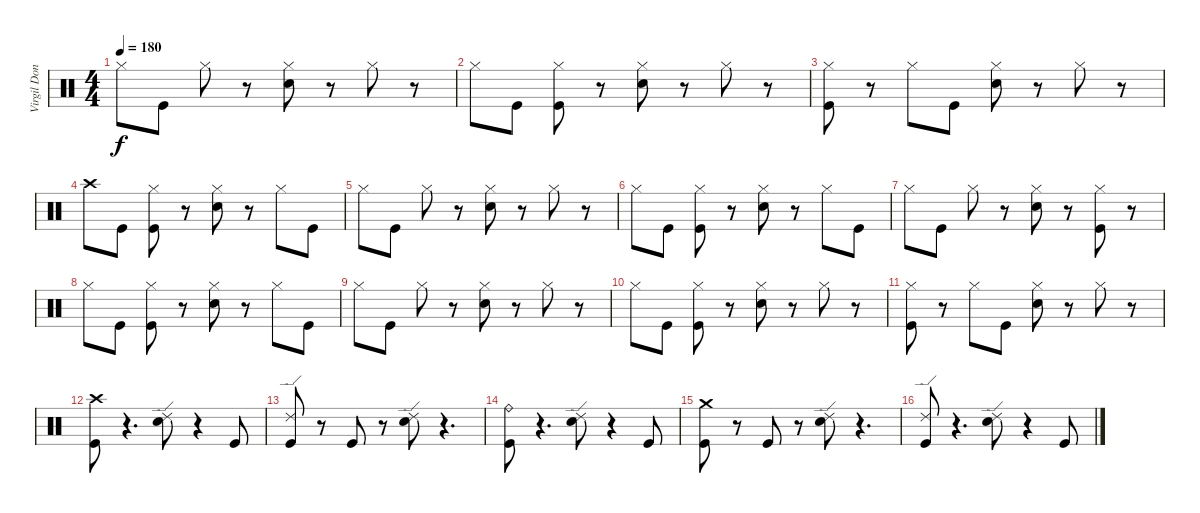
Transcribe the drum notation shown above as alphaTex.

\track ("Virgil Donati" "Virgil Don") {instrument percussion}
\staff {score}
\articulation defaults
\ts (4 4)
\tempo 180
\clef neutral
\ks c "Hi-Hat (closed)".8{dy f} "Kick (hit)".8 "Hi-Hat (closed)".8
r.8 ("Hi-Hat (closed)" "Electric Snare (hit)").8 r.8 "Hi-Hat (closed)".8 r.8 |
"Hi-Hat (closed)".8 "Kick (hit)".8 ("Hi-Hat (closed)" "Kick (hit)").8 r.8 ("Hi-Hat (closed)" "Electric Snare (hit)").8 r.8 "Hi-Hat (closed)".8 r.8 |
("Hi-Hat (closed)" "Kick (hit)").8 r.8 "Hi-Hat (closed)".8 "Kick (hit)".8 ("Hi-Hat (closed)" "Electric Snare (hit)").8 r.8 "Hi-Hat (closed)".8 r.8 |
"Crash high (hit)".8 "Kick (hit)".8 ("Hi-Hat (closed)" "Kick (hit)").8 r.8 ("Hi-Hat (closed)" "Electric Snare (hit)").8 r.8 "Hi-Hat (closed)".8 "Kick (hit)".8 |
"Hi-Hat (closed)".8 "Kick (hit)".8 "Hi-Hat (closed)".8 r.8 ("Hi-Hat (closed)" "Electric Snare (hit)").8 r.8 "Hi-Hat (closed)".8 r.8 |
"Hi-Hat (closed)".8 "Kick (hit)".8 ("Hi-Hat (closed)" "Kick (hit)").8 r.8 ("Hi-Hat (closed)" "Electric Snare (hit)").8 r.8 "Hi-Hat (closed)".8 "Kick (hit)".8 |
"Hi-Hat (closed)".8 "Kick (hit)".8 "Hi-Hat (closed)".8 r.8 ("Hi-Hat (closed)" "Electric Snare (hit)").8 r.8 ("Hi-Hat (closed)" "Kick (hit)").8 r.8 |
"Hi-Hat (closed)".8 "Kick (hit)".8 ("Hi-Hat (closed)" "Kick (hit)").8 r.8 ("Hi-Hat (closed)" "Electric Snare (hit)").8 r.8 "Hi-Hat (closed)".8 "Kick (hit)".8 |
"Hi-Hat (closed)".8 "Kick (hit)".8 "Hi-Hat (closed)".8 r.8 ("Hi-Hat (closed)" "Electric Snare (hit)").8 r.8 "Hi-Hat (closed)".8 r.8 |
"Hi-Hat (closed)".8 "Kick (hit)".8 ("Hi-Hat (closed)" "Kick (hit)").8 r.8 ("Hi-Hat (closed)" "Electric Snare (hit)").8 r.8 "Hi-Hat (closed)".8 r.8 |
("Hi-Hat (closed)" "Kick (hit)").8 r.8 "Hi-Hat (closed)".8 "Kick (hit)".8 ("Hi-Hat (closed)" "Electric Snare (hit)").8 r.8 "Hi-Hat (closed)".8 r.8 |
("Crash high (hit)" "Kick (hit)").8 r.4{d} ("Ride (edge) 2" "Electric Snare (hit)").8 r.4 "Kick (hit)".8 |
("Ride (edge) 2" "Kick (hit)").8 r.8 "Kick (hit)".8 r.8 ("Ride (edge) 2" "Electric Snare (hit)").8 r.4{d} |
("Ride (bell)" "Kick (hit)").8 r.4{d} ("Ride (edge) 2" "Electric Snare (hit)").8 r.4 "Kick (hit)".8 |
("Crash medium (hit)" "Kick (hit)").8 r.8 "Kick (hit)".8 r.8 ("Ride (edge) 2" "Electric Snare (hit)").8 r.4{d} |
("Ride (edge) 2" "Kick (hit)").8 r.4{d} ("Ride (edge) 2" "Electric Snare (hit)").8 r.4 "Kick (hit)".8
